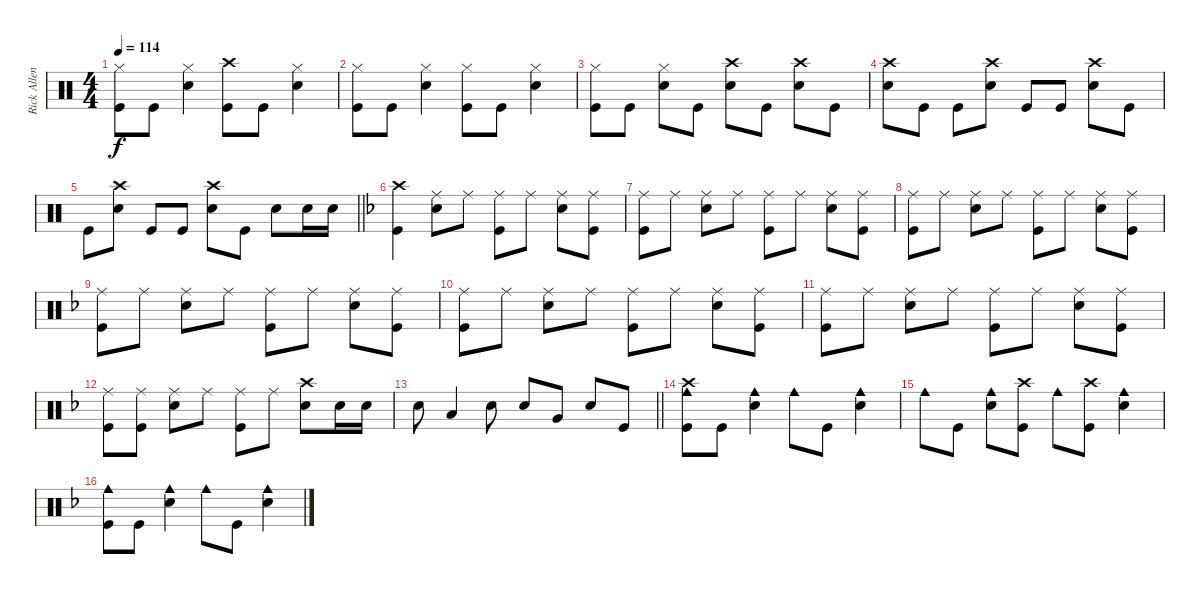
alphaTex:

\track ("Rick Allen" "Rick Allen") {instrument percussion}
\staff {score}
\articulation defaults
\ts (4 4)
\tempo 114
\clef neutral
\ks c
("Hi-Hat (closed)" "Kick (hit)").8{dy f} "Kick (hit)".8 ("Hi-Hat (closed)" "Snare (hit) 2").4 ("Crash high (hit)" "Kick (hit)").8 "Kick (hit)".8 ("Hi-Hat (closed)" "Snare (hit) 2").4 |
("Hi-Hat (closed)" "Kick (hit)").8 "Kick (hit)".8 ("Hi-Hat (closed)" "Snare (hit) 2").4 ("Hi-Hat (closed)" "Kick (hit)").8 "Kick (hit)".8 ("Hi-Hat (closed)" "Snare (hit) 2").4 |
("Hi-Hat (closed)" "Kick (hit)").8 "Kick (hit)".8 ("Hi-Hat (closed)" "Snare (hit) 2").8 "Kick (hit)".8 ("Crash high (hit)" "Snare (hit) 2").8 "Kick (hit)".8 ("Crash high (hit)" "Snare (hit) 2").8 "Kick (hit)".8 |
("Crash high (hit)" "Snare (hit) 2").8 "Kick (hit)".8 "Kick (hit)".8 ("Crash high (hit)" "Snare (hit) 2").8 "Kick (hit)".8 "Kick (hit)".8 ("Crash high (hit)" "Snare (hit) 2").8 "Kick (hit)".8 |
\barLineRight lightlight "Kick (hit)".8
("Crash high (hit)" "Snare (hit) 2").8 "Kick (hit)".8 "Kick (hit)".8 ("Crash high (hit)" "Snare (hit) 2").8 "Kick (hit)".8 "Snare (hit) 2".8 "Snare (hit) 2".16 "Snare (hit) 2".16 |
\ks dminor
("Crash high (hit)" "Kick (hit)").4 ("Ride (middle)" "Snare (hit) 2").8 "Ride (middle)".8 ("Ride (middle)" "Kick (hit)").8 "Ride (middle)".8 ("Ride (middle)" "Snare (hit) 2").8 ("Ride (middle)" "Kick (hit)").8 |
("Ride (middle)" "Kick (hit)").8 "Ride (middle)".8 ("Ride (middle)" "Snare (hit) 2").8 "Ride (middle)".8 ("Ride (middle)" "Kick (hit)").8 "Ride (middle)".8 ("Ride (middle)" "Snare (hit) 2").8 ("Ride (middle)" "Kick (hit)").8 |
("Ride (middle)" "Kick (hit)").8 "Ride (middle)".8 ("Ride (middle)" "Snare (hit) 2").8 "Ride (middle)".8 ("Ride (middle)" "Kick (hit)").8 "Ride (middle)".8 ("Ride (middle)" "Snare (hit) 2").8 ("Ride (middle)" "Kick (hit)").8 |
("Ride (middle)" "Kick (hit)").8 "Ride (middle)".8 ("Ride (middle)" "Snare (hit) 2").8 "Ride (middle)".8 ("Ride (middle)" "Kick (hit)").8 "Ride (middle)".8 ("Ride (middle)" "Snare (hit) 2").8 ("Ride (middle)" "Kick (hit)").8 |
("Ride (middle)" "Kick (hit)").8 "Ride (middle)".8 ("Ride (middle)" "Snare (hit) 2").8 "Ride (middle)".8 ("Ride (middle)" "Kick (hit)").8 "Ride (middle)".8 ("Ride (middle)" "Snare (hit) 2").8 ("Ride (middle)" "Kick (hit)").8 |
("Ride (middle)" "Kick (hit)").8 "Ride (middle)".8 ("Ride (middle)" "Snare (hit) 2").8 "Ride (middle)".8 ("Ride (middle)" "Kick (hit)").8 "Ride (middle)".8 ("Ride (middle)" "Snare (hit) 2").8 ("Ride (middle)" "Kick (hit)").8 |
("Ride (middle)" "Kick (hit)").8 ("Ride (middle)" "Kick (hit)").8 ("Ride (middle)" "Snare (hit) 2").8 "Ride (middle)".8 ("Ride (middle)" "Kick (hit)").8 "Ride (middle)".8 ("Crash high (hit)" "Snare (hit) 2").8 "Snare (hit) 2".16 "Snare (hit) 2".16 |
\barLineRight lightlight "Snare (hit) 2".8 "Low Tom (hit)".4 "Snare (hit) 2".8 "Snare (hit) 2".8 "Very Low Tom (hit)".8 "Snare (hit) 2".8 "Kick (hit)".8
|
("Cowbell medium (hit)" "Crash high (hit)" "Kick (hit)").8 "Kick (hit)".8 ("Cowbell medium (hit)" "Snare (hit) 2").4 "Cowbell medium (hit)".8 "Kick (hit)".8 ("Cowbell medium (hit)" "Snare (hit) 2").4 |
"Cowbell medium (hit)".8 "Kick (hit)".8 ("Cowbell medium (hit)" "Snare (hit) 2").8 ("Crash high (hit)" "Kick (hit)").8 "Cowbell medium (hit)".8 ("Crash high (hit)" "Kick (hit)").8 ("Cowbell medium (hit)" "Snare (hit) 2").4 |
("Cowbell medium (hit)" "Kick (hit)").8 "Kick (hit)".8 ("Cowbell medium (hit)" "Snare (hit) 2").4 "Cowbell medium (hit)".8 "Kick (hit)".8 ("Cowbell medium (hit)" "Snare (hit) 2").4
